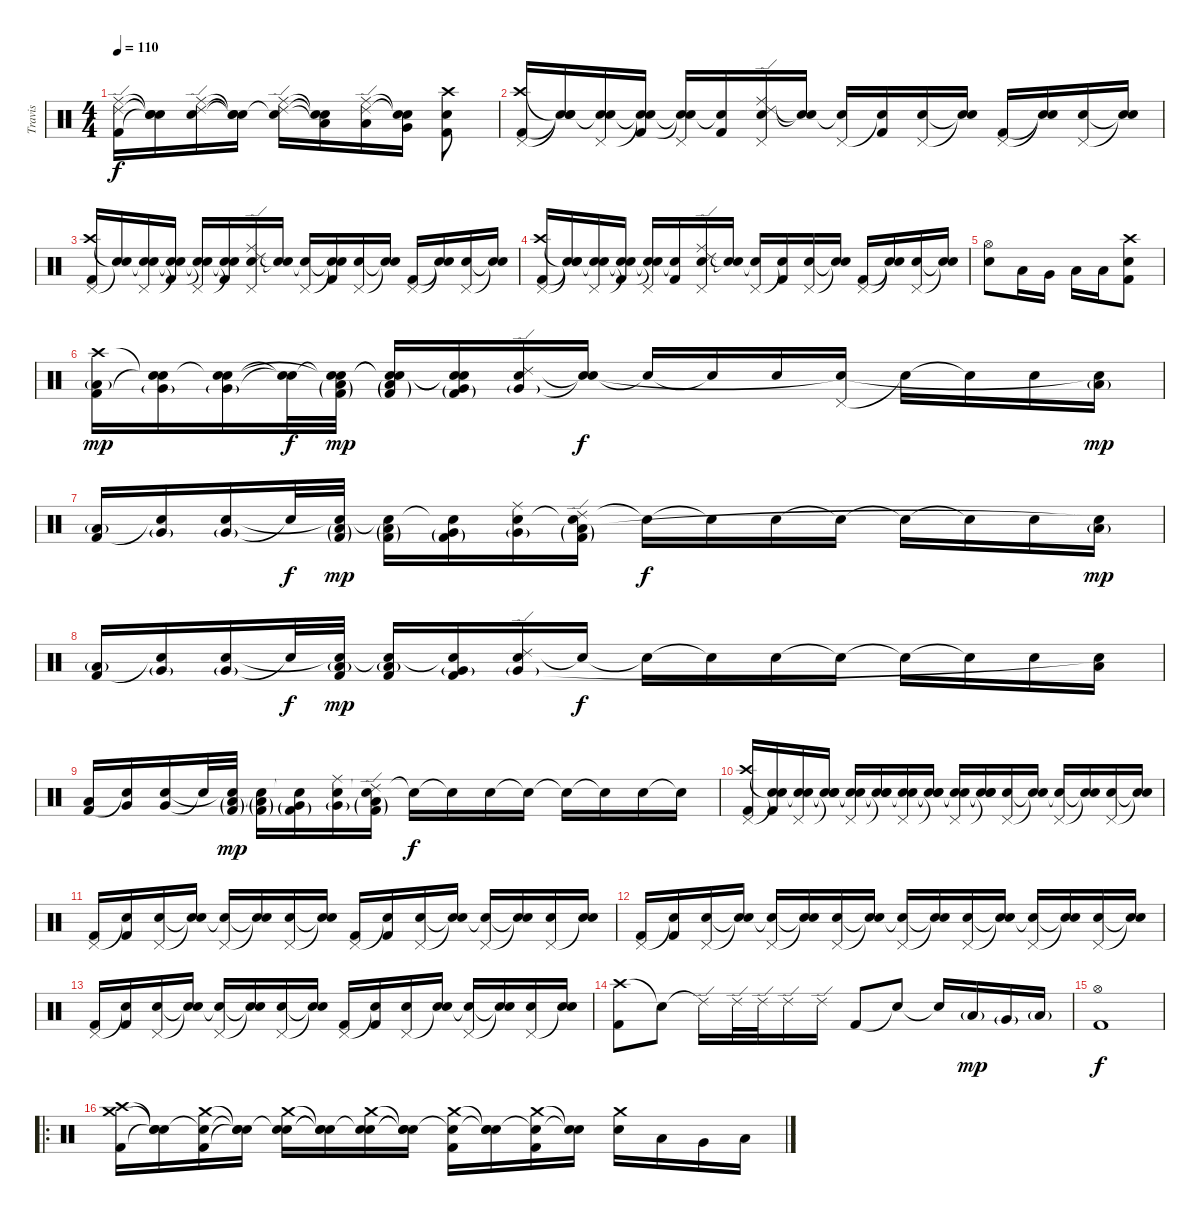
\track ("Travis" "Travis") {instrument percussion}
\staff {score}
\articulation defaults
\ts (4 4)
\tempo 110
\clef neutral
\ks c
("Ride (middle)" "Ride (edge) 2" "Kick (hit) 2").16{dy f} ("Snare (hit)"{t} "Snare (hit)"{t} "Snare (hit)"{t}).16 ("Ride (middle)" "Ride (edge) 2" "Electric Snare (hit)").16 ("Snare (hit)"{t} "Snare (hit)"{t} "Snare (hit)"{t}).16 ("Ride (middle)" "Ride (edge) 2" "Snare (hit)"{t}).16 ("Snare (hit)"{t} "Snare (hit)"{t} "Low Tom (hit)"{t}).16 ("Ride (middle)" "Ride (edge) 2" "Low Tom (hit)").16 ("Snare (hit)"{t} "Snare (hit)"{t} "Very Low Tom (hit)").16 ("Crash high (hit)" "Electric Snare (hit)" "Kick (hit) 2").8 |
("Crash high (hit)" "Pedal Hi-Hat (hit)" "Kick (hit) 2").16 ("Snare (hit)"{t} "Snare (hit)"{t} "Snare (hit)"{t}).16 ("Snare (hit)"{t} "Pedal Hi-Hat (hit)" "Electric Snare (hit)").16 ("Snare (hit)"{t} "Snare (hit)"{t} "Kick (hit) 2").16 ("Snare (hit)"{t} "Pedal Hi-Hat (hit)" "Snare (hit)"{t}).16 ("Snare (hit)"{t} "Kick (hit) 2").16 ("Ride (edge) 2" "Ride (middle)" "Pedal Hi-Hat (hit)" "Electric Snare (hit)").16 ("Snare (hit)"{t} "Snare (hit)"{t}).16 ("Pedal Hi-Hat (hit)" "Snare (hit)"{t}).16 ("Snare (hit)"{t} "Kick (hit) 2").16 ("Pedal Hi-Hat (hit)" "Electric Snare (hit)").16 ("Snare (hit)"{t} "Snare (hit)"{t}).16 ("Pedal Hi-Hat (hit)" "Kick (hit) 2").16 ("Snare (hit)"{t} "Snare (hit)"{t}).16 ("Pedal Hi-Hat (hit)" "Electric Snare (hit)").16 ("Snare (hit)"{t} "Snare (hit)"{t}).16 |
("Crash high (hit)" "Pedal Hi-Hat (hit)" "Kick (hit) 2").16 ("Snare (hit)"{t} "Snare (hit)"{t}).16 ("Snare (hit)"{t} "Pedal Hi-Hat (hit)" "Electric Snare (hit)").16 ("Snare (hit)"{t} "Snare (hit)"{t} "Kick (hit) 2").16 ("Snare (hit)"{t} "Pedal Hi-Hat (hit)" "Snare (hit)"{t}).16 ("Snare (hit)"{t} "Snare (hit)"{t} "Kick (hit) 2").16 ("Ride (edge) 2" "Ride (middle)" "Pedal Hi-Hat (hit)" "Electric Snare (hit)").16 ("Snare (hit)"{t} "Snare (hit)"{t}).16 ("Pedal Hi-Hat (hit)" "Snare (hit)"{t}).16 ("Snare (hit)"{t} "Snare (hit)"{t} "Kick (hit) 2").16 ("Pedal Hi-Hat (hit)" "Electric Snare (hit)").16 ("Snare (hit)"{t} "Snare (hit)"{t}).16 ("Pedal Hi-Hat (hit)" "Kick (hit) 2").16 ("Snare (hit)"{t} "Snare (hit)"{t}).16 ("Pedal Hi-Hat (hit)" "Electric Snare (hit)").16 ("Snare (hit)"{t} "Snare (hit)"{t}).16 |
("Crash high (hit)" "Pedal Hi-Hat (hit)" "Kick (hit) 2").16 ("Snare (hit)"{t} "Snare (hit)"{t} "Snare (hit)"{t}).16 ("Snare (hit)"{t} "Pedal Hi-Hat (hit)" "Electric Snare (hit)").16 ("Snare (hit)"{t} "Snare (hit)"{t} "Kick (hit) 2").16 ("Snare (hit)"{t} "Pedal Hi-Hat (hit)" "Snare (hit)"{t}).16 ("Snare (hit)"{t} "Kick (hit) 2").16 ("Ride (edge) 2" "Ride (middle)" "Pedal Hi-Hat (hit)" "Electric Snare (hit)").16 ("Snare (hit)"{t} "Snare (hit)"{t}).16 ("Pedal Hi-Hat (hit)" "Snare (hit)"{t}).16 ("Snare (hit)"{t} "Kick (hit) 2").16 ("Pedal Hi-Hat (hit)" "Electric Snare (hit)").16 ("Snare (hit)"{t} "Snare (hit)"{t}).16 ("Pedal Hi-Hat (hit)" "Kick (hit) 2").16 ("Snare (hit)"{t} "Snare (hit)"{t}).16 ("Pedal Hi-Hat (hit)" "Electric Snare (hit)").16 ("Snare (hit)"{t} "Snare (hit)"{t}).16 |
("Hi-Hat (open)" "Electric Snare (hit)").8 "Low Tom (hit)".16 "Very Low Tom (hit)".16 "Low Floor Tom (hit)".16 "Low Tom (hit)".16 ("Crash high (hit)" "Electric Snare (hit)" "Kick (hit) 2").8 |
("Crash high (hit)" "Low Tom (hit)"{g} "Kick (hit) 2").16{dy mp} ("Snare (hit)"{t} "Very Low Tom (hit)"{g} "Snare (hit)"{t}).16 ("Snare (hit)"{t} "Very Low Tom (hit)"{g} "Electric Snare (hit)").16 ("Snare (hit)"{t} "Snare (hit)"{t}).32{dy f} ("Snare (hit)"{t} "Low Tom (hit)"{g} "Snare (hit)"{t} "Kick (hit) 2"{g}).32{dy mp} ("Snare (hit)"{t} "Low Tom (hit)"{g} "Snare (hit)"{t} "Kick (hit) 2"{g}).16 ("Snare (hit)"{t} "Very Low Tom (hit)"{g} "Snare (hit)"{t} "Kick (hit) 2"{g}).16 ("Ride (edge) 2" "Very Low Tom (hit)"{g} "Electric Snare (hit)").16 ("Snare (hit)"{t} "Snare (hit)"{t}).16{dy f} "Snare (hit)"{t}.16 "Snare (hit)"{t}.16 "Electric Snare (hit)".16 ("Pedal Hi-Hat (hit)" "Snare (hit)"{t}).16 "Snare (hit)"{t}.16 "Snare (hit)"{t}.16 "Electric Snare (hit)".16 ("Low Tom (hit)"{g} "Snare (hit)"{t}).16{dy mp} |
("Low Tom (hit)"{g} "Kick (hit) 2").16 ("Very Low Tom (hit)"{g} "Snare (hit)"{t}).16 ("Very Low Tom (hit)"{g} "Electric Snare (hit)").16 "Snare (hit)"{t}.32{dy f} ("Low Tom (hit)"{g} "Snare (hit)"{t} "Kick (hit) 2"{g}).32{dy mp} ("Low Tom (hit)"{g} "Snare (hit)"{t} "Kick (hit) 2"{g}).16 ("Very Low Tom (hit)"{g} "Snare (hit)"{t} "Kick (hit) 2"{g}).16 ("Ride (middle)" "Very Low Tom (hit)"{g} "Electric Snare (hit)").16 ("Ride (edge) 2" "Low Floor Tom (hit)"{g} "Snare (hit)"{t} "Kick (hit) 2"{g}).16 "Snare (hit)"{t}.16{dy f} "Snare (hit)"{t}.16 "Electric Snare (hit)".16 "Snare (hit)"{t}.16 "Snare (hit)"{t}.16 "Snare (hit)"{t}.16 "Electric Snare (hit)".16 ("Low Tom (hit)"{g} "Snare (hit)"{t}).16{dy mp} |
("Low Tom (hit)"{g} "Kick (hit) 2").16 ("Very Low Tom (hit)"{g} "Snare (hit)"{t}).16 ("Very Low Tom (hit)"{g} "Electric Snare (hit)").16 "Snare (hit)"{t}.32{dy f} ("Low Tom (hit)"{g} "Snare (hit)"{t} "Kick (hit) 2").32{dy mp} ("Low Tom (hit)"{g} "Snare (hit)"{t} "Kick (hit) 2").16 ("Very Low Tom (hit)"{g} "Snare (hit)"{t} "Kick (hit) 2").16 ("Ride (edge) 2" "Very Low Tom (hit)"{g} "Electric Snare (hit)").16 "Snare (hit)"{t}.16{dy f} "Snare (hit)"{t}.16 "Snare (hit)"{t}.16 "Electric Snare (hit)".16 "Snare (hit)"{t}.16 "Snare (hit)"{t}.16 "Snare (hit)"{t}.16 "Electric Snare (hit)".16 ("Low Tom (hit)" "Snare (hit)"{t}).16 |
("Low Tom (hit)" "Kick (hit) 2").16 ("Very Low Tom (hit)" "Snare (hit)"{t}).16 ("Very Low Tom (hit)" "Electric Snare (hit)").16 "Snare (hit)"{t}.32 ("Low Tom (hit)"{g} "Snare (hit)"{t} "Kick (hit) 2"{g}).32{dy mp} ("Low Tom (hit)"{g} "Snare (hit)"{t} "Kick (hit) 2"{g}).16 ("Very Low Tom (hit)"{g} "Snare (hit)"{t} "Kick (hit) 2"{g}).16 ("Ride (middle)" "Very Low Tom (hit)"{g} "Electric Snare (hit)").16 ("Ride (edge) 2" "Low Floor Tom (hit)"{g} "Snare (hit)"{t} "Kick (hit) 2"{g}).16 "Snare (hit)"{t}.16{dy f} "Snare (hit)"{t}.16 "Electric Snare (hit)".16 "Snare (hit)"{t}.16 "Snare (hit)"{t}.16 "Snare (hit)"{t}.16 "Electric Snare (hit)".16 "Snare (hit)"{t}.16 |
("Crash high (hit)" "Pedal Hi-Hat (hit)" "Kick (hit) 2").16 ("Snare (hit)"{t} "Snare (hit)"{t} "Kick (hit) 2").16 ("Snare (hit)"{t} "Pedal Hi-Hat (hit)" "Electric Snare (hit)").16 ("Snare (hit)"{t} "Snare (hit)"{t} "Snare (hit)"{t}).16 ("Snare (hit)"{t} "Pedal Hi-Hat (hit)" "Snare (hit)"{t}).16 ("Snare (hit)"{t} "Snare (hit)"{t} "Snare (hit)"{t}).16 ("Snare (hit)"{t} "Pedal Hi-Hat (hit)" "Electric Snare (hit)").16 ("Snare (hit)"{t} "Snare (hit)"{t} "Snare (hit)"{t}).16 ("Snare (hit)"{t} "Pedal Hi-Hat (hit)" "Snare (hit)"{t}).16 ("Snare (hit)"{t} "Snare (hit)"{t} "Snare (hit)"{t}).16 ("Pedal Hi-Hat (hit)" "Electric Snare (hit)").16 ("Snare (hit)"{t} "Snare (hit)"{t}).16 ("Pedal Hi-Hat (hit)" "Snare (hit)"{t}).16 ("Snare (hit)"{t} "Snare (hit)"{t}).16 ("Pedal Hi-Hat (hit)" "Electric Snare (hit)").16 ("Snare (hit)"{t} "Snare (hit)"{t}).16 |
("Pedal Hi-Hat (hit)" "Kick (hit) 2").16 ("Snare (hit)"{t} "Kick (hit) 2").16 ("Pedal Hi-Hat (hit)" "Electric Snare (hit)").16 ("Snare (hit)"{t} "Snare (hit)"{t}).16 ("Pedal Hi-Hat (hit)" "Snare (hit)"{t}).16 ("Snare (hit)"{t} "Snare (hit)"{t}).16 ("Pedal Hi-Hat (hit)" "Electric Snare (hit)").16 ("Snare (hit)"{t} "Snare (hit)"{t}).16 ("Pedal Hi-Hat (hit)" "Kick (hit) 2").16 ("Snare (hit)"{t} "Kick (hit) 2").16 ("Pedal Hi-Hat (hit)" "Electric Snare (hit)").16 ("Snare (hit)"{t} "Snare (hit)"{t}).16 ("Pedal Hi-Hat (hit)" "Snare (hit)"{t}).16 ("Snare (hit)"{t} "Electric Snare (hit)"{t}).16 ("Pedal Hi-Hat (hit)" "Electric Snare (hit)").16 ("Snare (hit)"{t} "Electric Snare (hit)").16 |
("Pedal Hi-Hat (hit)" "Kick (hit) 2").16 ("Snare (hit)"{t} "Kick (hit) 2").16 ("Pedal Hi-Hat (hit)" "Electric Snare (hit)").16 ("Snare (hit)"{t} "Snare (hit)"{t}).16 ("Pedal Hi-Hat (hit)" "Snare (hit)"{t}).16 ("Snare (hit)"{t} "Snare (hit)"{t}).16 ("Pedal Hi-Hat (hit)" "Electric Snare (hit)").16 ("Snare (hit)"{t} "Snare (hit)"{t}).16 ("Pedal Hi-Hat (hit)" "Snare (hit)"{t}).16 ("Snare (hit)"{t} "Snare (hit)"{t}).16 ("Pedal Hi-Hat (hit)" "Electric Snare (hit)").16 ("Snare (hit)"{t} "Snare (hit)"{t}).16 ("Pedal Hi-Hat (hit)" "Snare (hit)"{t}).16 ("Snare (hit)"{t} "Electric Snare (hit)"{t}).16 ("Pedal Hi-Hat (hit)" "Electric Snare (hit)").16 ("Snare (hit)"{t} "Snare (hit)"{t}).16 |
("Pedal Hi-Hat (hit)" "Kick (hit) 2").16 ("Snare (hit)"{t} "Kick (hit) 2").16 ("Pedal Hi-Hat (hit)" "Electric Snare (hit)").16 ("Snare (hit)"{t} "Snare (hit)"{t}).16 ("Pedal Hi-Hat (hit)" "Snare (hit)"{t}).16 ("Snare (hit)"{t} "Snare (hit)"{t}).16 ("Pedal Hi-Hat (hit)" "Electric Snare (hit)").16 ("Snare (hit)"{t} "Snare (hit)"{t}).16 ("Pedal Hi-Hat (hit)" "Kick (hit) 2").16 ("Snare (hit)"{t} "Kick (hit) 2").16 ("Pedal Hi-Hat (hit)" "Electric Snare (hit)").16 ("Snare (hit)"{t} "Electric Snare (hit)").16 ("Pedal Hi-Hat (hit)" "Snare (hit)"{t}).16 ("Snare (hit)"{t} "Snare (hit)"{t}).16 ("Pedal Hi-Hat (hit)" "Electric Snare (hit)").16 ("Snare (hit)"{t} "Electric Snare (hit)").16 |
("Crash high (hit)" "Kick (hit) 2").8{volume 8} "Snare (hit)"{t}.8 "Ride (edge) 2"{t}.16 "Ride (edge) 2".32 "Ride (edge) 2".32 "Ride (edge) 2".16 "Ride (edge) 2".16 "Kick (hit) 2".8 "Snare (hit)"{t}.8 "Snare (hit)"{t}.16 "Low Tom (hit)"{g}.16{dy mp} "Very Low Tom (hit)"{g}.16 "Low Floor Tom (hit)"{g}.16 |
("Hi-Hat (open)" "Kick (hit) 2").1{dy f} |
\ro
("Crash high (hit)" "Crash medium (hit)" "Kick (hit) 2").16{volume 10} ("Snare (hit)"{t} "Snare (hit)"{t} "Snare (hit)"{t}).16 ("Snare (hit)"{t} "Crash medium (hit)" "Kick (hit) 2").16 ("Snare (hit)"{t} "Snare (hit)"{t} "Snare (hit)"{t}).16 ("Snare (hit)"{t} "Crash medium (hit)" "Electric Snare (hit)").16 ("Snare (hit)"{t} "Snare (hit)"{t} "Electric Snare (hit)"{t}).16 ("Snare (hit)"{t} "Crash medium (hit)" "Electric Snare (hit)").16 ("Snare (hit)"{t} "Snare (hit)"{t} "Snare (hit)"{t}).16 ("Snare (hit)"{t} "Crash medium (hit)" "Kick (hit) 2").16 ("Snare (hit)"{t} "Snare (hit)"{t} "Electric Snare (hit)").16 ("Snare (hit)"{t} "Crash medium (hit)" "Kick (hit) 2").16 ("Snare (hit)"{t} "Snare (hit)"{t}).16 ("Crash medium (hit)" "Electric Snare (hit)").16 "Low Tom (hit)".16 "Very Low Tom (hit)".16 "Low Floor Tom (hit)".16
